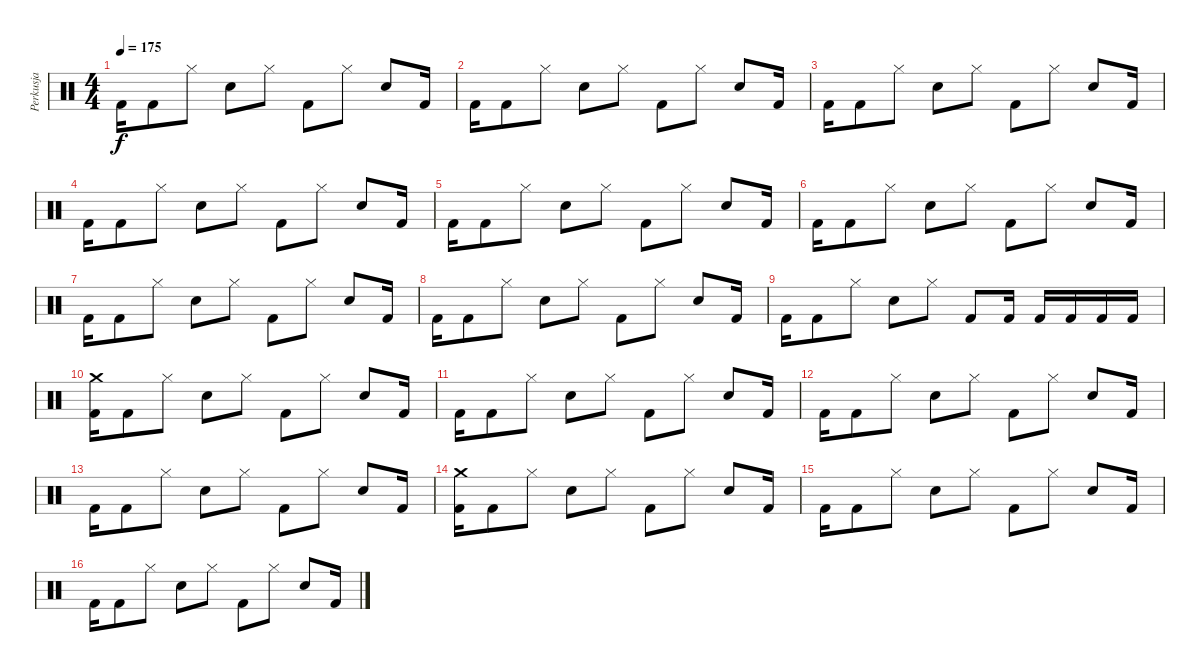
\track ("Perkusja" "Perkusja") {instrument percussion}
\staff {score}
\articulation defaults
\ts (4 4)
\tempo 175
\clef neutral
\ks c "Kick (hit) 2".16{dy f} "Kick (hit) 2".8 "Hi-Hat (closed)".8 "Snare (hit) 2".8 "Hi-Hat (closed)".8 "Kick (hit) 2".8 "Hi-Hat (closed)".8 "Snare (hit) 2".8 "Kick (hit) 2".16
|
"Kick (hit) 2".16 "Kick (hit) 2".8 "Hi-Hat (closed)".8 "Snare (hit) 2".8 "Hi-Hat (closed)".8 "Kick (hit) 2".8 "Hi-Hat (closed)".8 "Snare (hit) 2".8 "Kick (hit) 2".16 |
"Kick (hit) 2".16 "Kick (hit) 2".8 "Hi-Hat (closed)".8 "Snare (hit) 2".8 "Hi-Hat (closed)".8 "Kick (hit) 2".8 "Hi-Hat (closed)".8 "Snare (hit) 2".8 "Kick (hit) 2".16 |
"Kick (hit) 2".16 "Kick (hit) 2".8 "Hi-Hat (closed)".8 "Snare (hit) 2".8 "Hi-Hat (closed)".8 "Kick (hit) 2".8 "Hi-Hat (closed)".8 "Snare (hit) 2".8 "Kick (hit) 2".16 |
"Kick (hit) 2".16 "Kick (hit) 2".8 "Hi-Hat (closed)".8 "Snare (hit) 2".8 "Hi-Hat (closed)".8 "Kick (hit) 2".8 "Hi-Hat (closed)".8 "Snare (hit) 2".8 "Kick (hit) 2".16 |
"Kick (hit) 2".16 "Kick (hit) 2".8 "Hi-Hat (closed)".8 "Snare (hit) 2".8 "Hi-Hat (closed)".8 "Kick (hit) 2".8 "Hi-Hat (closed)".8 "Snare (hit) 2".8 "Kick (hit) 2".16 |
"Kick (hit) 2".16 "Kick (hit) 2".8 "Hi-Hat (closed)".8 "Snare (hit) 2".8 "Hi-Hat (closed)".8 "Kick (hit) 2".8 "Hi-Hat (closed)".8 "Snare (hit) 2".8 "Kick (hit) 2".16 |
"Kick (hit) 2".16 "Kick (hit) 2".8 "Hi-Hat (closed)".8 "Snare (hit) 2".8 "Hi-Hat (closed)".8 "Kick (hit) 2".8 "Hi-Hat (closed)".8 "Snare (hit) 2".8 "Kick (hit) 2".16 |
"Kick (hit) 2".16 "Kick (hit) 2".8 "Hi-Hat (closed)".8 "Snare (hit) 2".8 "Hi-Hat (closed)".8 "Kick (hit) 2".8 "Kick (hit) 2".16 "Kick (hit) 2".16 "Kick (hit) 2".16 "Kick (hit) 2".16 "Kick (hit) 2".16 |
("Kick (hit) 2" "Crash medium (hit)").16 "Kick (hit) 2".8 "Hi-Hat (closed)".8 "Snare (hit) 2".8 "Hi-Hat (closed)".8 "Kick (hit) 2".8 "Hi-Hat (closed)".8 "Snare (hit) 2".8 "Kick (hit) 2".16 |
"Kick (hit) 2".16 "Kick (hit) 2".8 "Hi-Hat (closed)".8 "Snare (hit) 2".8 "Hi-Hat (closed)".8 "Kick (hit) 2".8 "Hi-Hat (closed)".8 "Snare (hit) 2".8 "Kick (hit) 2".16 |
"Kick (hit) 2".16 "Kick (hit) 2".8 "Hi-Hat (closed)".8 "Snare (hit) 2".8 "Hi-Hat (closed)".8 "Kick (hit) 2".8 "Hi-Hat (closed)".8 "Snare (hit) 2".8 "Kick (hit) 2".16 |
"Kick (hit) 2".16 "Kick (hit) 2".8 "Hi-Hat (closed)".8 "Snare (hit) 2".8 "Hi-Hat (closed)".8 "Kick (hit) 2".8 "Hi-Hat (closed)".8 "Snare (hit) 2".8 "Kick (hit) 2".16 |
("Kick (hit) 2" "Crash medium (hit)").16 "Kick (hit) 2".8 "Hi-Hat (closed)".8 "Snare (hit) 2".8 "Hi-Hat (closed)".8 "Kick (hit) 2".8 "Hi-Hat (closed)".8 "Snare (hit) 2".8 "Kick (hit) 2".16 |
"Kick (hit) 2".16 "Kick (hit) 2".8 "Hi-Hat (closed)".8 "Snare (hit) 2".8 "Hi-Hat (closed)".8 "Kick (hit) 2".8 "Hi-Hat (closed)".8 "Snare (hit) 2".8 "Kick (hit) 2".16 |
"Kick (hit) 2".16 "Kick (hit) 2".8 "Hi-Hat (closed)".8 "Snare (hit) 2".8 "Hi-Hat (closed)".8 "Kick (hit) 2".8 "Hi-Hat (closed)".8 "Snare (hit) 2".8 "Kick (hit) 2".16
